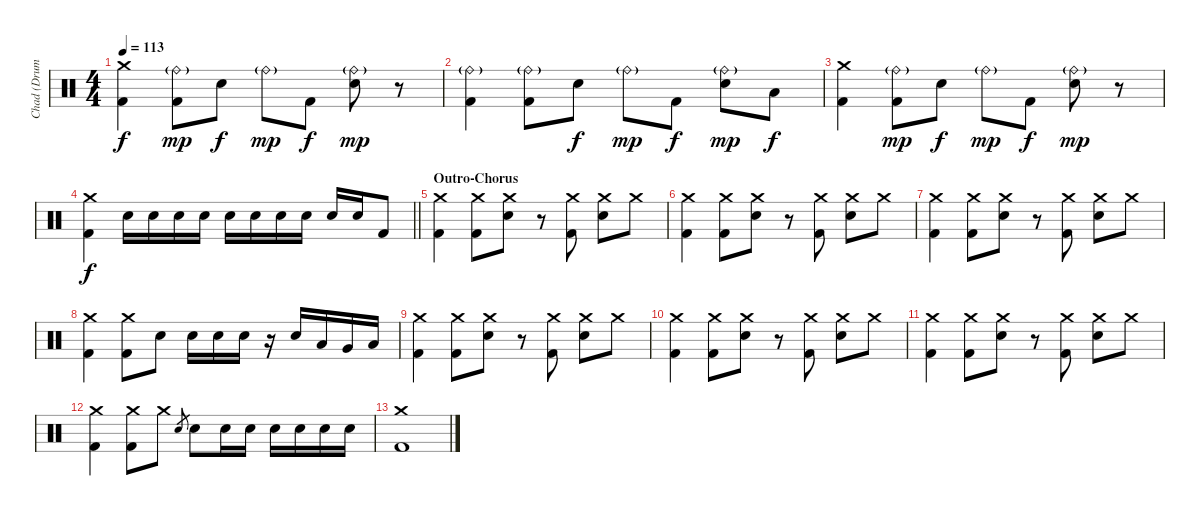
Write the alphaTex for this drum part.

\track ("Chad (Drums)" "Chad (Drum") {instrument percussion}
\staff {score}
\articulation defaults
\ts (4 4)
\tempo 113
\clef neutral
\ks c
("Crash medium (hit)" "Kick (hit) 2").4{dy f} ("Ride (bell)"{g} "Kick (hit) 2").8{dy mp} "Snare (hit) 2".8{dy f} "Ride (bell)"{g}.8{dy mp} "Kick (hit) 2".8{dy f} ("Ride (bell)"{g} "Snare (hit) 2").8{dy mp} r.8 |
("Ride (bell)"{g} "Kick (hit) 2").4 ("Ride (bell)"{g} "Kick (hit) 2").8 "Snare (hit) 2".8{dy f} "Ride (bell)"{g}.8{dy mp} "Kick (hit) 2".8{dy f} ("Ride (bell)"{g} "Snare (hit) 2").8{dy mp} "Low Floor Tom (hit)".8{dy f} |
("Crash medium (hit)" "Kick (hit) 2").4 ("Ride (bell)"{g} "Kick (hit) 2").8{dy mp} "Snare (hit) 2".8{dy f} "Ride (bell)"{g}.8{dy mp} "Kick (hit) 2".8{dy f} ("Ride (bell)"{g} "Snare (hit) 2").8{dy mp} r.8 |
\barLineRight lightlight
("Crash medium (hit)" "Kick (hit) 2").4{dy f} "Electric Snare (hit)".16 "Electric Snare (hit)".16 "Electric Snare (hit)".16 "Electric Snare (hit)".16 "Electric Snare (hit)".16 "Electric Snare (hit)".16 "Electric Snare (hit)".16 "Electric Snare (hit)".16 "Electric Snare (hit)".16 "Electric Snare (hit)".16 "Kick (hit) 2".8 |
\section ("" "Outro-Chorus")
("Crash medium (hit)" "Kick (hit) 2").4 ("Crash medium (hit)" "Kick (hit) 2").8 ("Crash medium (hit)" "Snare (hit) 2").8 r.8 ("Crash medium (hit)" "Kick (hit) 2").8 ("Crash medium (hit)" "Snare (hit) 2").8 "Crash medium (hit)".8 |
("Crash medium (hit)" "Kick (hit) 2").4 ("Crash medium (hit)" "Kick (hit) 2").8 ("Crash medium (hit)" "Snare (hit) 2").8 r.8 ("Crash medium (hit)" "Kick (hit) 2").8 ("Crash medium (hit)" "Snare (hit) 2").8 "Crash medium (hit)".8 |
("Crash medium (hit)" "Kick (hit) 2").4 ("Crash medium (hit)" "Kick (hit) 2").8 ("Crash medium (hit)" "Snare (hit) 2").8 r.8 ("Crash medium (hit)" "Kick (hit) 2").8 ("Crash medium (hit)" "Snare (hit) 2").8 "Crash medium (hit)".8 |
("Crash medium (hit)" "Kick (hit) 2").4 ("Crash medium (hit)" "Kick (hit) 2").8 "Snare (hit) 2".8 "Snare (hit) 2".16 "Snare (hit) 2".16 "Snare (hit) 2".16 r.16 "Snare (hit) 2".16 "Low Tom (hit)".16 "Very Low Tom (hit)".16 "Low Floor Tom (hit)".16 |
("Crash medium (hit)" "Kick (hit) 2").4 ("Crash medium (hit)" "Kick (hit) 2").8 ("Crash medium (hit)" "Snare (hit) 2").8 r.8 ("Crash medium (hit)" "Kick (hit) 2").8 ("Crash medium (hit)" "Snare (hit) 2").8 "Crash medium (hit)".8 |
("Crash medium (hit)" "Kick (hit) 2").4 ("Crash medium (hit)" "Kick (hit) 2").8 ("Crash medium (hit)" "Snare (hit) 2").8 r.8 ("Crash medium (hit)" "Kick (hit) 2").8 ("Crash medium (hit)" "Snare (hit) 2").8 "Crash medium (hit)".8 |
("Crash medium (hit)" "Kick (hit) 2").4 ("Crash medium (hit)" "Kick (hit) 2").8 ("Crash medium (hit)" "Snare (hit) 2").8 r.8 ("Crash medium (hit)" "Kick (hit) 2").8 ("Crash medium (hit)" "Snare (hit) 2").8 "Crash medium (hit)".8 |
("Crash medium (hit)" "Kick (hit) 2").4 ("Crash medium (hit)" "Kick (hit) 2").8 "Crash medium (hit)".8 "Snare (hit) 2".8{gr} "Snare (hit) 2".8 "Snare (hit) 2".16 "Snare (hit) 2".16 "Snare (hit) 2".16 "Snare (hit) 2".16 "Snare (hit) 2".16 "Snare (hit) 2".16 |
("Crash medium (hit)" "Kick (hit) 2").1
